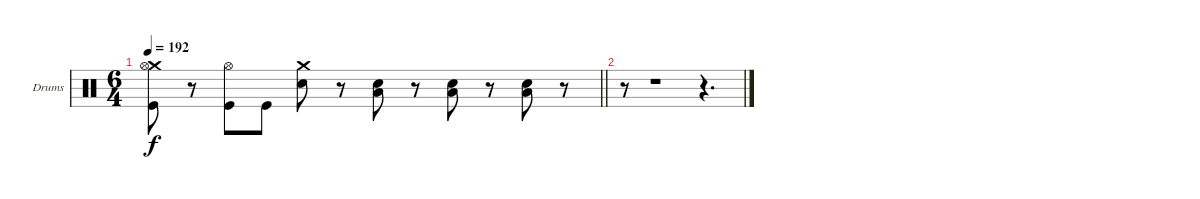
\bracketExtendMode groupsimilarinstruments
\firstSystemTrackNameOrientation horizontal
\otherSystemsTrackNameOrientation horizontal
\track ("Drumkit" "Drums") {instrument percussion}
\staff {score}
\articulation defaults
\ts (6 4)
\tempo 192
\clef neutral
\barLineRight lightlight
\ks c
("Crash medium (hit)" "Hi-Hat (open)" "Kick (hit)").8{dy f} r.8 ("Hi-Hat (open)" "Kick (hit)").8 "Kick (hit)".8 ("Crash medium (hit)" "Snare (hit) 2").8 r.8 ("Low Tom (hit)" "Snare (hit) 2").8 r.8 ("Low Tom (hit)" "Snare (hit) 2").8 r.8 ("Low Tom (hit)" "Snare (hit) 2").8 r.8 |
r.8 r.1 r.4{d}
